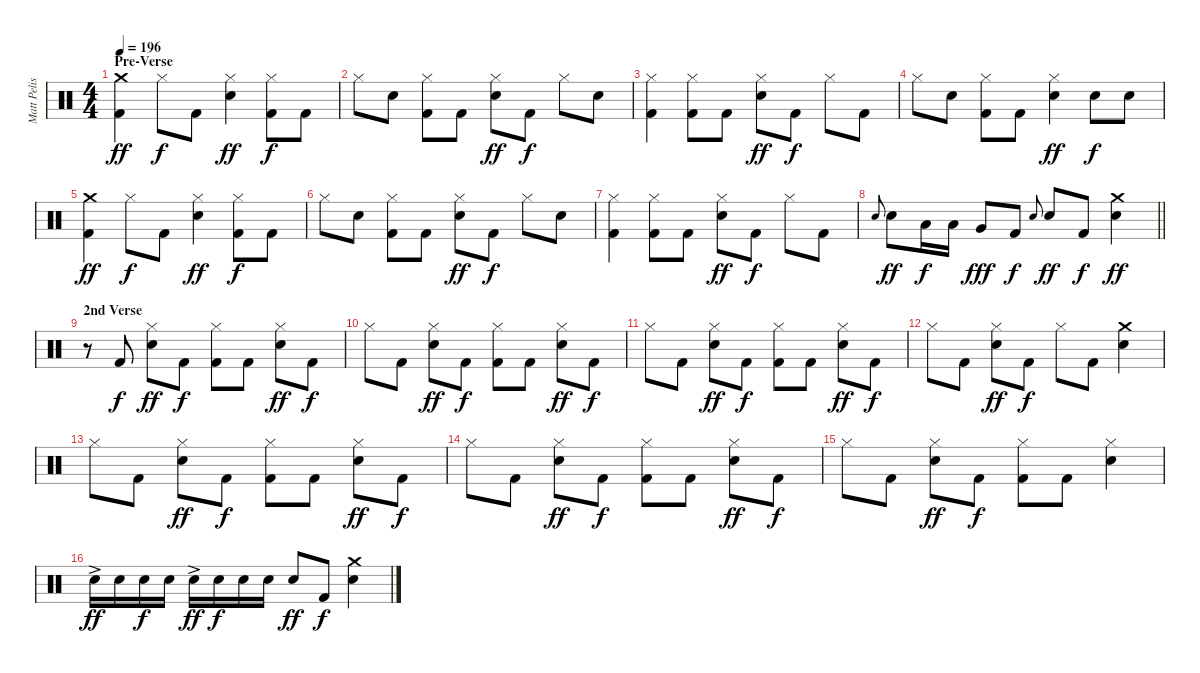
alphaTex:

\track ("Matt Pelissier" "Matt Pelis") {instrument percussion}
\staff {score}
\articulation defaults
\ts (4 4)
\section ("" "Pre-Verse")
\tempo 196
\clef neutral
\ks c
("Crash medium (hit)" "Kick (hit) 2").4{dy ff} "Hi-Hat (closed)".8{dy f} "Kick (hit) 2".8 ("Hi-Hat (closed)" "Snare (hit) 2").4{dy ff} ("Hi-Hat (closed)" "Kick (hit) 2").8{dy f} "Kick (hit) 2".8 |
"Hi-Hat (closed)".8 "Snare (hit) 2".8 ("Hi-Hat (closed)" "Kick (hit) 2").8 "Kick (hit) 2".8 ("Hi-Hat (closed)" "Snare (hit) 2").8{dy ff} "Kick (hit) 2".8{dy f} "Hi-Hat (closed)".8 "Snare (hit) 2".8 |
("Hi-Hat (closed)" "Kick (hit) 2").4 ("Hi-Hat (closed)" "Kick (hit) 2").8 "Kick (hit) 2".8 ("Hi-Hat (closed)" "Snare (hit) 2").8{dy ff} "Kick (hit) 2".8{dy f} "Hi-Hat (closed)".8 "Kick (hit) 2".8 |
"Hi-Hat (closed)".8 "Snare (hit) 2".8 ("Hi-Hat (closed)" "Kick (hit) 2").8 "Kick (hit) 2".8 ("Hi-Hat (closed)" "Snare (hit) 2").4{dy ff} "Snare (hit) 2".8{dy f} "Snare (hit) 2".8 |
("Crash medium (hit)" "Kick (hit) 2").4{dy ff} "Hi-Hat (closed)".8{dy f} "Kick (hit) 2".8 ("Hi-Hat (closed)" "Snare (hit) 2").4{dy ff} ("Hi-Hat (closed)" "Kick (hit) 2").8{dy f} "Kick (hit) 2".8 |
"Hi-Hat (closed)".8 "Snare (hit) 2".8 ("Hi-Hat (closed)" "Kick (hit) 2").8 "Kick (hit) 2".8 ("Hi-Hat (closed)" "Snare (hit) 2").8{dy ff} "Kick (hit) 2".8{dy f} "Hi-Hat (closed)".8 "Snare (hit) 2".8 |
("Hi-Hat (closed)" "Kick (hit) 2").4 ("Hi-Hat (closed)" "Kick (hit) 2").8 "Kick (hit) 2".8 ("Hi-Hat (closed)" "Snare (hit) 2").8{dy ff} "Kick (hit) 2".8{dy f} "Hi-Hat (closed)".8 "Kick (hit) 2".8 |
\barLineRight lightlight "Snare (hit) 2".8{gr onbeat} "Snare (hit) 2".8{dy ff} "Low Tom (hit)".16{dy f} "Low Tom (hit)".16 "Very Low Tom (hit)".8{dy fff} "Kick (hit) 2".8{dy f} "Snare (hit) 2".8{gr onbeat} "Snare (hit) 2".8{dy ff} "Kick (hit) 2".8{dy f}
("Crash medium (hit)" "Snare (hit) 2").4{dy ff} |
\section ("" "2nd Verse")
r.8 "Kick (hit) 2".8{dy f} ("Hi-Hat (closed)" "Snare (hit) 2").8{dy ff} "Kick (hit) 2".8{dy f} ("Hi-Hat (closed)" "Kick (hit) 2").8 "Kick (hit) 2".8 ("Hi-Hat (closed)" "Snare (hit) 2").8{dy ff} "Kick (hit) 2".8{dy f} |
"Hi-Hat (closed)".8 "Kick (hit) 2".8 ("Hi-Hat (closed)" "Snare (hit) 2").8{dy ff} "Kick (hit) 2".8{dy f} ("Hi-Hat (closed)" "Kick (hit) 2").8 "Kick (hit) 2".8 ("Hi-Hat (closed)" "Snare (hit) 2").8{dy ff} "Kick (hit) 2".8{dy f} |
"Hi-Hat (closed)".8 "Kick (hit) 2".8 ("Hi-Hat (closed)" "Snare (hit) 2").8{dy ff} "Kick (hit) 2".8{dy f} ("Hi-Hat (closed)" "Kick (hit) 2").8 "Kick (hit) 2".8 ("Hi-Hat (closed)" "Snare (hit) 2").8{dy ff} "Kick (hit) 2".8{dy f} |
"Hi-Hat (closed)".8 "Kick (hit) 2".8 ("Hi-Hat (closed)" "Snare (hit) 2").8{dy ff} "Kick (hit) 2".8{dy f} "Hi-Hat (closed)".8 "Kick (hit) 2".8 ("Crash medium (hit)" "Snare (hit) 2").4 |
"Hi-Hat (closed)".8 "Kick (hit) 2".8 ("Hi-Hat (closed)" "Snare (hit) 2").8{dy ff} "Kick (hit) 2".8{dy f} ("Hi-Hat (closed)" "Kick (hit) 2").8 "Kick (hit) 2".8 ("Hi-Hat (closed)" "Snare (hit) 2").8{dy ff} "Kick (hit) 2".8{dy f} |
"Hi-Hat (closed)".8 "Kick (hit) 2".8 ("Hi-Hat (closed)" "Snare (hit) 2").8{dy ff} "Kick (hit) 2".8{dy f} ("Hi-Hat (closed)" "Kick (hit) 2").8 "Kick (hit) 2".8 ("Hi-Hat (closed)" "Snare (hit) 2").8{dy ff} "Kick (hit) 2".8{dy f} |
"Hi-Hat (closed)".8 "Kick (hit) 2".8 ("Hi-Hat (closed)" "Snare (hit) 2").8{dy ff} "Kick (hit) 2".8{dy f} ("Hi-Hat (closed)" "Kick (hit) 2").8 "Kick (hit) 2".8 ("Hi-Hat (closed)" "Snare (hit) 2").4 |
"Snare (hit) 2"{ac}.16{dy ff} "Snare (hit) 2".16 "Snare (hit) 2".16{dy f} "Snare (hit) 2".16 "Snare (hit) 2"{ac}.16{dy ff} "Snare (hit) 2".16{dy f} "Snare (hit) 2".16 "Snare (hit) 2".16 "Snare (hit) 2".8{dy ff} "Kick (hit) 2".8{dy f} ("Crash medium (hit)" "Snare (hit) 2").4
